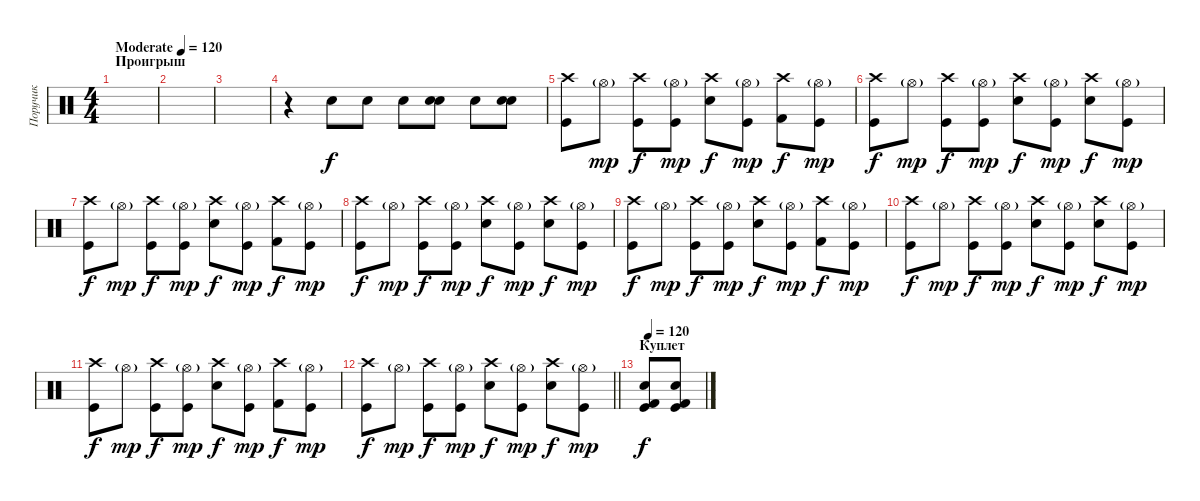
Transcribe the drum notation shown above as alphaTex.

\track ("Поручик" "Поручик") {instrument percussion}
\staff {score}
\articulation defaults
\ts (4 4)
\section ("" "Проигрыш")
\tempo (120 "Moderate")
\tempo 130
\tempo (120 "Moderate")
\clef neutral
\ks c
|
|
|
r.4 "Snare (hit) 2".8 "Snare (hit) 2".8 "Snare (hit) 2".8 ("Snare (hit) 2" "Electric Snare (hit)").8 "Snare (hit) 2".8 ("Snare (hit) 2" "Electric Snare (hit)").8 |
("Crash high (hit)" "Kick (hit)").8 "Hi-Hat (open)"{g}.8{dy mp} ("Crash high (hit)" "Kick (hit)").8{dy f} ("Hi-Hat (open)"{g} "Kick (hit)").8{dy mp} ("Electric Snare (hit)" "Crash high (hit)").8{dy f} ("Hi-Hat (open)"{g} "Kick (hit)").8{dy mp} ("Crash high (hit)" "Kick (hit) 2").8{dy f} ("Hi-Hat (open)"{g} "Kick (hit)").8{dy mp} |
("Crash high (hit)" "Kick (hit)").8{dy f} "Hi-Hat (open)"{g}.8{dy mp} ("Crash high (hit)" "Kick (hit)").8{dy f} ("Hi-Hat (open)"{g} "Kick (hit)").8{dy mp} ("Electric Snare (hit)" "Crash high (hit)").8{dy f} ("Hi-Hat (open)"{g} "Kick (hit)").8{dy mp} ("Crash high (hit)" "Electric Snare (hit)").8{dy f} ("Hi-Hat (open)"{g} "Kick (hit)").8{dy mp} |
("Crash high (hit)" "Kick (hit)").8{dy f} "Hi-Hat (open)"{g}.8{dy mp} ("Crash high (hit)" "Kick (hit)").8{dy f} ("Hi-Hat (open)"{g} "Kick (hit)").8{dy mp} ("Electric Snare (hit)" "Crash high (hit)").8{dy f} ("Hi-Hat (open)"{g} "Kick (hit)").8{dy mp} ("Crash high (hit)" "Kick (hit) 2").8{dy f} ("Hi-Hat (open)"{g} "Kick (hit)").8{dy mp} |
("Crash high (hit)" "Kick (hit)").8{dy f} "Hi-Hat (open)"{g}.8{dy mp} ("Crash high (hit)" "Kick (hit)").8{dy f} ("Hi-Hat (open)"{g} "Kick (hit)").8{dy mp} ("Electric Snare (hit)" "Crash high (hit)").8{dy f} ("Hi-Hat (open)"{g} "Kick (hit)").8{dy mp} ("Crash high (hit)" "Electric Snare (hit)").8{dy f} ("Hi-Hat (open)"{g} "Kick (hit)").8{dy mp} |
("Crash high (hit)" "Kick (hit)").8{dy f} "Hi-Hat (open)"{g}.8{dy mp} ("Crash high (hit)" "Kick (hit)").8{dy f} ("Hi-Hat (open)"{g} "Kick (hit)").8{dy mp} ("Electric Snare (hit)" "Crash high (hit)").8{dy f} ("Hi-Hat (open)"{g} "Kick (hit)").8{dy mp} ("Crash high (hit)" "Kick (hit) 2").8{dy f} ("Hi-Hat (open)"{g} "Kick (hit)").8{dy mp} |
("Crash high (hit)" "Kick (hit)").8{dy f} "Hi-Hat (open)"{g}.8{dy mp} ("Crash high (hit)" "Kick (hit)").8{dy f} ("Hi-Hat (open)"{g} "Kick (hit)").8{dy mp} ("Electric Snare (hit)" "Crash high (hit)").8{dy f} ("Hi-Hat (open)"{g} "Kick (hit)").8{dy mp} ("Crash high (hit)" "Electric Snare (hit)").8{dy f} ("Hi-Hat (open)"{g} "Kick (hit)").8{dy mp} |
("Crash high (hit)" "Kick (hit)").8{dy f} "Hi-Hat (open)"{g}.8{dy mp} ("Crash high (hit)" "Kick (hit)").8{dy f} ("Hi-Hat (open)"{g} "Kick (hit)").8{dy mp} ("Electric Snare (hit)" "Crash high (hit)").8{dy f} ("Hi-Hat (open)"{g} "Kick (hit)").8{dy mp} ("Crash high (hit)" "Kick (hit) 2").8{dy f} ("Hi-Hat (open)"{g} "Kick (hit)").8{dy mp} |
\barLineRight lightlight
("Crash high (hit)" "Kick (hit)").8{dy f} "Hi-Hat (open)"{g}.8{dy mp} ("Crash high (hit)" "Kick (hit)").8{dy f} ("Hi-Hat (open)"{g} "Kick (hit)").8{dy mp} ("Electric Snare (hit)" "Crash high (hit)").8{dy f} ("Hi-Hat (open)"{g} "Kick (hit)").8{dy mp} ("Crash high (hit)" "Electric Snare (hit)").8{dy f} ("Hi-Hat (open)"{g} "Kick (hit)").8{dy mp} |
\section ("" "Куплет")
\tempo 120
("Snare (hit) 2" "Kick (hit)" "Kick (hit) 2").8{dy f} ("Snare (hit) 2" "Kick (hit)" "Kick (hit) 2").8
